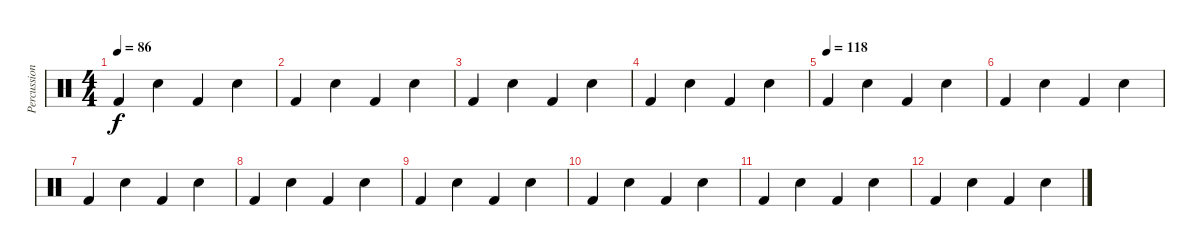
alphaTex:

\track ("Percussions" "Percussion") {instrument percussion}
\staff {score}
\articulation defaults
\ts (4 4)
\tempo 86
\clef neutral
\ks c "Kick (hit) 2".4{dy f} "Snare (hit) 2".4 "Kick (hit) 2".4 "Snare (hit) 2".4
|
"Kick (hit) 2".4 "Snare (hit) 2".4 "Kick (hit) 2".4 "Snare (hit) 2".4 |
"Kick (hit) 2".4 "Snare (hit) 2".4 "Kick (hit) 2".4 "Snare (hit) 2".4 |
"Kick (hit) 2".4 "Snare (hit) 2".4 "Kick (hit) 2".4 "Snare (hit) 2".4 |
\tempo (118)
"Kick (hit) 2".4 "Snare (hit) 2".4 "Kick (hit) 2".4 "Snare (hit) 2".4 |
"Kick (hit) 2".4 "Snare (hit) 2".4 "Kick (hit) 2".4 "Snare (hit) 2".4 |
"Kick (hit) 2".4 "Snare (hit) 2".4 "Kick (hit) 2".4 "Snare (hit) 2".4 |
"Kick (hit) 2".4 "Snare (hit) 2".4 "Kick (hit) 2".4 "Snare (hit) 2".4 |
"Kick (hit) 2".4 "Snare (hit) 2".4 "Kick (hit) 2".4 "Snare (hit) 2".4 |
"Kick (hit) 2".4 "Snare (hit) 2".4 "Kick (hit) 2".4 "Snare (hit) 2".4 |
"Kick (hit) 2".4 "Snare (hit) 2".4 "Kick (hit) 2".4 "Snare (hit) 2".4 |
"Kick (hit) 2".4 "Snare (hit) 2".4 "Kick (hit) 2".4 "Snare (hit) 2".4
